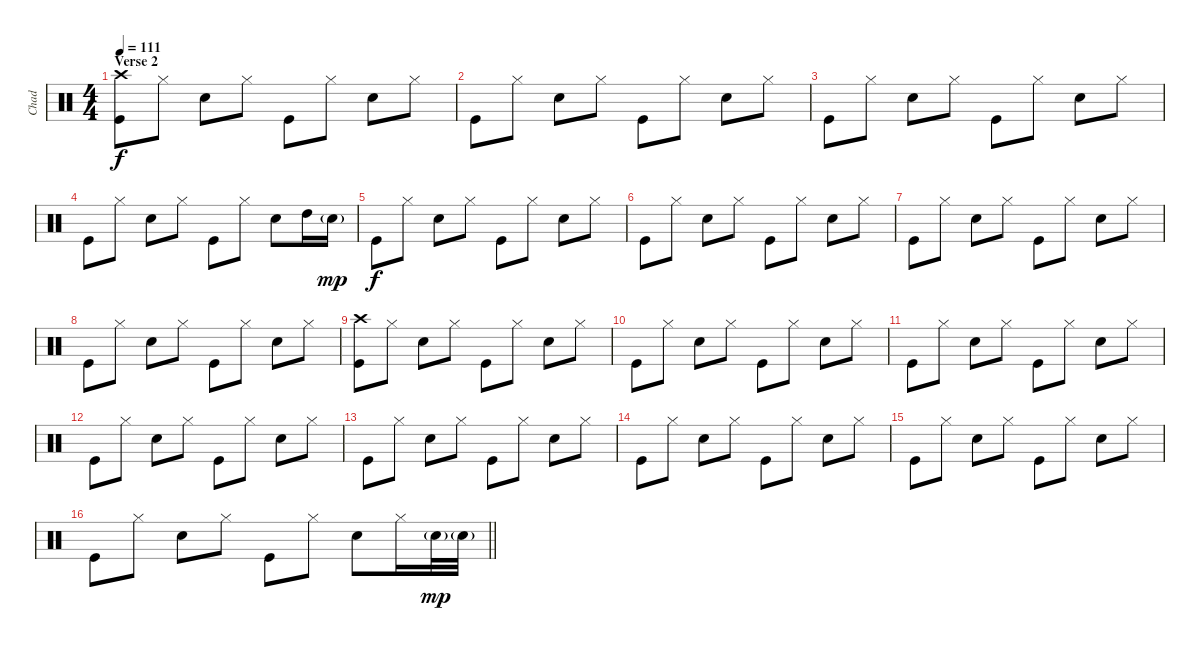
\track ("Chad" "Chad") {instrument percussion}
\staff {score}
\articulation defaults
\ts (4 4)
\section ("" "Verse 2")
\tempo 111
\clef neutral
\ks c
("Crash high (hit)" "Kick (hit)").8{dy f} "Hi-Hat (closed)".8 "Snare (hit) 2".8 "Hi-Hat (closed)".8 "Kick (hit)".8 "Hi-Hat (closed)".8 "Snare (hit) 2".8 "Hi-Hat (closed)".8 |
"Kick (hit)".8 "Hi-Hat (closed)".8 "Snare (hit) 2".8 "Hi-Hat (closed)".8 "Kick (hit)".8 "Hi-Hat (closed)".8 "Snare (hit) 2".8 "Hi-Hat (closed)".8 |
"Kick (hit)".8 "Hi-Hat (closed)".8 "Snare (hit) 2".8 "Hi-Hat (closed)".8 "Kick (hit)".8 "Hi-Hat (closed)".8 "Snare (hit) 2".8 "Hi-Hat (closed)".8 |
"Kick (hit)".8 "Hi-Hat (closed)".8 "Snare (hit) 2".8 "Hi-Hat (closed)".8 "Kick (hit)".8 "Hi-Hat (closed)".8 "Snare (hit) 2".8 "High Tom (hit)".16 "Snare (hit) 2"{g}.16{dy mp} |
"Kick (hit)".8{dy f} "Hi-Hat (closed)".8 "Snare (hit) 2".8 "Hi-Hat (closed)".8 "Kick (hit)".8 "Hi-Hat (closed)".8 "Snare (hit) 2".8 "Hi-Hat (closed)".8 |
"Kick (hit)".8 "Hi-Hat (closed)".8 "Snare (hit) 2".8 "Hi-Hat (closed)".8 "Kick (hit)".8 "Hi-Hat (closed)".8 "Snare (hit) 2".8 "Hi-Hat (closed)".8 |
"Kick (hit)".8 "Hi-Hat (closed)".8 "Snare (hit) 2".8 "Hi-Hat (closed)".8 "Kick (hit)".8 "Hi-Hat (closed)".8 "Snare (hit) 2".8 "Hi-Hat (closed)".8 |
"Kick (hit)".8 "Hi-Hat (closed)".8 "Snare (hit) 2".8 "Hi-Hat (closed)".8 "Kick (hit)".8 "Hi-Hat (closed)".8 "Snare (hit) 2".8 "Hi-Hat (closed)".8 |
("Crash high (hit)" "Kick (hit)").8 "Hi-Hat (closed)".8 "Snare (hit) 2".8 "Hi-Hat (closed)".8 "Kick (hit)".8 "Hi-Hat (closed)".8 "Snare (hit) 2".8 "Hi-Hat (closed)".8 |
"Kick (hit)".8 "Hi-Hat (closed)".8 "Snare (hit) 2".8 "Hi-Hat (closed)".8 "Kick (hit)".8 "Hi-Hat (closed)".8 "Snare (hit) 2".8 "Hi-Hat (closed)".8 |
"Kick (hit)".8 "Hi-Hat (closed)".8 "Snare (hit) 2".8 "Hi-Hat (closed)".8 "Kick (hit)".8 "Hi-Hat (closed)".8 "Snare (hit) 2".8 "Hi-Hat (closed)".8 |
"Kick (hit)".8 "Hi-Hat (closed)".8 "Snare (hit) 2".8 "Hi-Hat (closed)".8 "Kick (hit)".8 "Hi-Hat (closed)".8 "Snare (hit) 2".8 "Hi-Hat (closed)".8 |
"Kick (hit)".8 "Hi-Hat (closed)".8 "Snare (hit) 2".8 "Hi-Hat (closed)".8 "Kick (hit)".8 "Hi-Hat (closed)".8 "Snare (hit) 2".8 "Hi-Hat (closed)".8 |
"Kick (hit)".8 "Hi-Hat (closed)".8 "Snare (hit) 2".8 "Hi-Hat (closed)".8 "Kick (hit)".8 "Hi-Hat (closed)".8 "Snare (hit) 2".8 "Hi-Hat (closed)".8 |
"Kick (hit)".8 "Hi-Hat (closed)".8 "Snare (hit) 2".8 "Hi-Hat (closed)".8 "Kick (hit)".8 "Hi-Hat (closed)".8 "Snare (hit) 2".8 "Hi-Hat (closed)".8 |
\barLineRight lightlight "Kick (hit)".8 "Hi-Hat (closed)".8 "Snare (hit) 2".8 "Hi-Hat (closed)".8 "Kick (hit)".8 "Hi-Hat (closed)".8 "Snare (hit) 2".8 "Hi-Hat (closed)".16 "Snare (hit) 2"{g}.32{dy mp} "Snare (hit) 2"{g}.32
